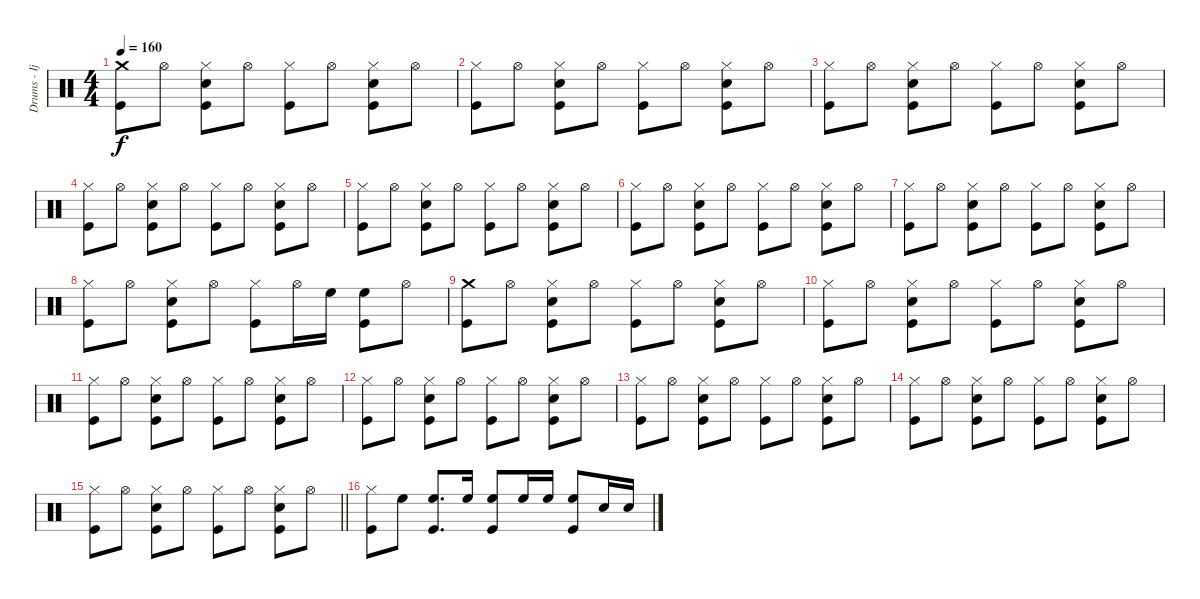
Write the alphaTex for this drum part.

\track ("Drums - Ijichi" "Drums - Ij") {instrument percussion}
\staff {score}
\articulation defaults
\ts (4 4)
\tempo 160
\clef neutral
\ks c
("Crash medium (hit)" "Kick (hit)").8{dy f} "Hi-Hat (open)".8 ("Hi-Hat (closed)" "Electric Snare (hit)" "Kick (hit)").8 "Hi-Hat (open)".8 ("Hi-Hat (closed)" "Kick (hit)").8 "Hi-Hat (open)".8 ("Hi-Hat (closed)" "Electric Snare (hit)" "Kick (hit)").8 "Hi-Hat (open)".8 |
("Hi-Hat (closed)" "Kick (hit)").8 "Hi-Hat (open)".8 ("Hi-Hat (closed)" "Electric Snare (hit)" "Kick (hit)").8 "Hi-Hat (open)".8 ("Hi-Hat (closed)" "Kick (hit)").8 "Hi-Hat (open)".8 ("Hi-Hat (closed)" "Electric Snare (hit)" "Kick (hit)").8 "Hi-Hat (open)".8 |
("Hi-Hat (closed)" "Kick (hit)").8 "Hi-Hat (open)".8 ("Hi-Hat (closed)" "Electric Snare (hit)" "Kick (hit)").8 "Hi-Hat (open)".8 ("Hi-Hat (closed)" "Kick (hit)").8 "Hi-Hat (open)".8 ("Hi-Hat (closed)" "Electric Snare (hit)" "Kick (hit)").8 "Hi-Hat (open)".8 |
("Hi-Hat (closed)" "Kick (hit)").8 "Hi-Hat (open)".8 ("Hi-Hat (closed)" "Electric Snare (hit)" "Kick (hit)").8 "Hi-Hat (open)".8 ("Hi-Hat (closed)" "Kick (hit)").8 "Hi-Hat (open)".8 ("Hi-Hat (closed)" "Electric Snare (hit)" "Kick (hit)").8 "Hi-Hat (open)".8 |
("Hi-Hat (closed)" "Kick (hit)").8 "Hi-Hat (open)".8 ("Hi-Hat (closed)" "Electric Snare (hit)" "Kick (hit)").8 "Hi-Hat (open)".8 ("Hi-Hat (closed)" "Kick (hit)").8 "Hi-Hat (open)".8 ("Hi-Hat (closed)" "Electric Snare (hit)" "Kick (hit)").8 "Hi-Hat (open)".8 |
("Hi-Hat (closed)" "Kick (hit)").8 "Hi-Hat (open)".8 ("Hi-Hat (closed)" "Electric Snare (hit)" "Kick (hit)").8 "Hi-Hat (open)".8 ("Hi-Hat (closed)" "Kick (hit)").8 "Hi-Hat (open)".8 ("Hi-Hat (closed)" "Electric Snare (hit)" "Kick (hit)").8 "Hi-Hat (open)".8 |
("Hi-Hat (closed)" "Kick (hit)").8 "Hi-Hat (open)".8 ("Hi-Hat (closed)" "Electric Snare (hit)" "Kick (hit)").8 "Hi-Hat (open)".8 ("Hi-Hat (closed)" "Kick (hit)").8 "Hi-Hat (open)".8 ("Hi-Hat (closed)" "Electric Snare (hit)" "Kick (hit)").8 "Hi-Hat (open)".8 |
("Hi-Hat (closed)" "Kick (hit)").8 "Hi-Hat (open)".8 ("Hi-Hat (closed)" "Electric Snare (hit)" "Kick (hit)").8 "Hi-Hat (open)".8 ("Hi-Hat (closed)" "Kick (hit)").8 "Hi-Hat (open)".16 "High Floor Tom (hit)".16 ("High Floor Tom (hit)" "Kick (hit)").8 "Hi-Hat (open)".8 |
("Crash medium (hit)" "Kick (hit)").8 "Hi-Hat (open)".8 ("Hi-Hat (closed)" "Electric Snare (hit)" "Kick (hit)").8 "Hi-Hat (open)".8 ("Hi-Hat (closed)" "Kick (hit)").8 "Hi-Hat (open)".8 ("Hi-Hat (closed)" "Electric Snare (hit)" "Kick (hit)").8 "Hi-Hat (open)".8 |
("Hi-Hat (closed)" "Kick (hit)").8 "Hi-Hat (open)".8 ("Hi-Hat (closed)" "Electric Snare (hit)" "Kick (hit)").8 "Hi-Hat (open)".8 ("Hi-Hat (closed)" "Kick (hit)").8 "Hi-Hat (open)".8 ("Hi-Hat (closed)" "Electric Snare (hit)" "Kick (hit)").8 "Hi-Hat (open)".8 |
("Hi-Hat (closed)" "Kick (hit)").8 "Hi-Hat (open)".8 ("Hi-Hat (closed)" "Electric Snare (hit)" "Kick (hit)").8 "Hi-Hat (open)".8 ("Hi-Hat (closed)" "Kick (hit)").8 "Hi-Hat (open)".8 ("Hi-Hat (closed)" "Electric Snare (hit)" "Kick (hit)").8 "Hi-Hat (open)".8 |
("Hi-Hat (closed)" "Kick (hit)").8 "Hi-Hat (open)".8 ("Hi-Hat (closed)" "Electric Snare (hit)" "Kick (hit)").8 "Hi-Hat (open)".8 ("Hi-Hat (closed)" "Kick (hit)").8 "Hi-Hat (open)".8 ("Hi-Hat (closed)" "Electric Snare (hit)" "Kick (hit)").8 "Hi-Hat (open)".8 |
("Hi-Hat (closed)" "Kick (hit)").8 "Hi-Hat (open)".8 ("Hi-Hat (closed)" "Electric Snare (hit)" "Kick (hit)").8 "Hi-Hat (open)".8 ("Hi-Hat (closed)" "Kick (hit)").8 "Hi-Hat (open)".8 ("Hi-Hat (closed)" "Electric Snare (hit)" "Kick (hit)").8 "Hi-Hat (open)".8 |
("Hi-Hat (closed)" "Kick (hit)").8 "Hi-Hat (open)".8 ("Hi-Hat (closed)" "Electric Snare (hit)" "Kick (hit)").8 "Hi-Hat (open)".8 ("Hi-Hat (closed)" "Kick (hit)").8 "Hi-Hat (open)".8 ("Hi-Hat (closed)" "Electric Snare (hit)" "Kick (hit)").8 "Hi-Hat (open)".8 |
\barLineRight lightlight
("Hi-Hat (closed)" "Kick (hit)").8 "Hi-Hat (open)".8 ("Hi-Hat (closed)" "Electric Snare (hit)" "Kick (hit)").8 "Hi-Hat (open)".8 ("Hi-Hat (closed)" "Kick (hit)").8 "Hi-Hat (open)".8 ("Hi-Hat (closed)" "Electric Snare (hit)" "Kick (hit)").8 "Hi-Hat (open)".8 |
("Hi-Hat (closed)" "Kick (hit)").8 "High Floor Tom (hit)".8 ("High Floor Tom (hit)" "Kick (hit)").8{d} "High Floor Tom (hit)".16 ("High Floor Tom (hit)" "Kick (hit)").8 "High Floor Tom (hit)".16 "High Floor Tom (hit)".16 ("High Floor Tom (hit)" "Kick (hit)").8 "Electric Snare (hit)".16 "Electric Snare (hit)".16
